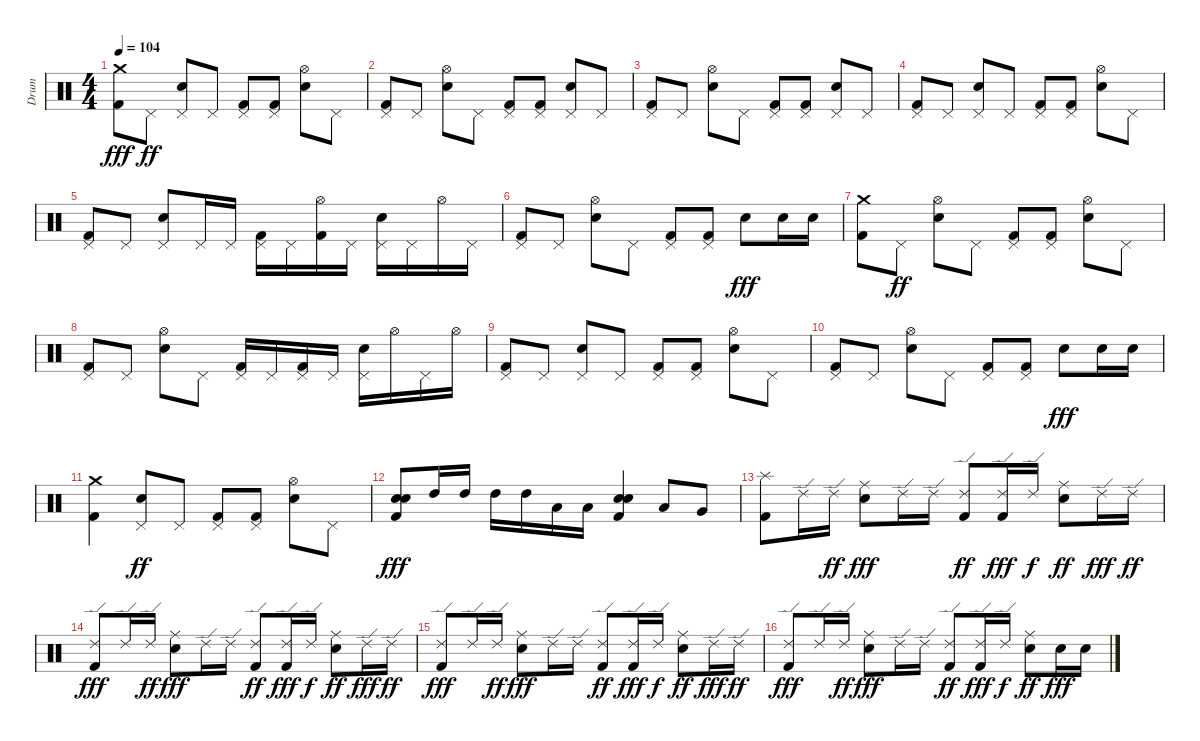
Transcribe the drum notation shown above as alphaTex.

\track ("Drum" "Drum") {instrument percussion}
\staff {score}
\articulation defaults
\ts (4 4)
\tempo 104
\clef neutral
\ks c
("Crash medium (hit)" "Kick (hit) 2").8{dy fff} "Pedal Hi-Hat (hit)".8{dy ff} ("Electric Snare (hit)" "Pedal Hi-Hat (hit)").8 "Pedal Hi-Hat (hit)".8 ("Kick (hit) 2" "Pedal Hi-Hat (hit)").8 ("Kick (hit) 2" "Pedal Hi-Hat (hit)").8 ("Electric Snare (hit)" "Hi-Hat (open)").8 "Pedal Hi-Hat (hit)".8 |
("Kick (hit) 2" "Pedal Hi-Hat (hit)").8 "Pedal Hi-Hat (hit)".8 ("Electric Snare (hit)" "Hi-Hat (open)").8 "Pedal Hi-Hat (hit)".8 ("Kick (hit) 2" "Pedal Hi-Hat (hit)").8 ("Kick (hit) 2" "Pedal Hi-Hat (hit)").8 ("Electric Snare (hit)" "Pedal Hi-Hat (hit)").8 "Pedal Hi-Hat (hit)".8 |
("Kick (hit) 2" "Pedal Hi-Hat (hit)").8 "Pedal Hi-Hat (hit)".8 ("Electric Snare (hit)" "Hi-Hat (open)").8 "Pedal Hi-Hat (hit)".8 ("Kick (hit) 2" "Pedal Hi-Hat (hit)").8 ("Kick (hit) 2" "Pedal Hi-Hat (hit)").8 ("Electric Snare (hit)" "Pedal Hi-Hat (hit)").8 "Pedal Hi-Hat (hit)".8 |
("Kick (hit) 2" "Pedal Hi-Hat (hit)").8 "Pedal Hi-Hat (hit)".8 ("Electric Snare (hit)" "Pedal Hi-Hat (hit)").8 "Pedal Hi-Hat (hit)".8 ("Kick (hit) 2" "Pedal Hi-Hat (hit)").8 ("Kick (hit) 2" "Pedal Hi-Hat (hit)").8 ("Electric Snare (hit)" "Hi-Hat (open)").8 "Pedal Hi-Hat (hit)".8 |
("Kick (hit) 2" "Pedal Hi-Hat (hit)").8 "Pedal Hi-Hat (hit)".8 ("Electric Snare (hit)" "Pedal Hi-Hat (hit)").8 "Pedal Hi-Hat (hit)".16 "Pedal Hi-Hat (hit)".16 ("Kick (hit) 2" "Pedal Hi-Hat (hit)").16 "Pedal Hi-Hat (hit)".16 ("Kick (hit) 2" "Hi-Hat (open)").16 "Pedal Hi-Hat (hit)".16 ("Electric Snare (hit)" "Pedal Hi-Hat (hit)").16 "Pedal Hi-Hat (hit)".16 "Hi-Hat (open)".16 "Pedal Hi-Hat (hit)".16 |
("Kick (hit) 2" "Pedal Hi-Hat (hit)").8 "Pedal Hi-Hat (hit)".8 ("Electric Snare (hit)" "Hi-Hat (open)").8 "Pedal Hi-Hat (hit)".8 ("Kick (hit) 2" "Pedal Hi-Hat (hit)").8 ("Kick (hit) 2" "Pedal Hi-Hat (hit)").8 "Electric Snare (hit)".8{dy fff} "Electric Snare (hit)".16 "Electric Snare (hit)".16 |
("Crash medium (hit)" "Kick (hit) 2").8 "Pedal Hi-Hat (hit)".8{dy ff} ("Electric Snare (hit)" "Hi-Hat (open)").8 "Pedal Hi-Hat (hit)".8 ("Kick (hit) 2" "Pedal Hi-Hat (hit)").8 ("Kick (hit) 2" "Pedal Hi-Hat (hit)").8 ("Electric Snare (hit)" "Hi-Hat (open)").8 "Pedal Hi-Hat (hit)".8 |
("Kick (hit) 2" "Pedal Hi-Hat (hit)").8 "Pedal Hi-Hat (hit)".8 ("Electric Snare (hit)" "Hi-Hat (open)").8 "Pedal Hi-Hat (hit)".8 ("Kick (hit) 2" "Pedal Hi-Hat (hit)").16 "Pedal Hi-Hat (hit)".16 ("Kick (hit) 2" "Pedal Hi-Hat (hit)").16 "Pedal Hi-Hat (hit)".16 ("Electric Snare (hit)" "Pedal Hi-Hat (hit)").16 "Hi-Hat (open)".16 "Pedal Hi-Hat (hit)".16 "Hi-Hat (open)".16 |
("Kick (hit) 2" "Pedal Hi-Hat (hit)").8 "Pedal Hi-Hat (hit)".8 ("Electric Snare (hit)" "Pedal Hi-Hat (hit)").8 "Pedal Hi-Hat (hit)".8 ("Kick (hit) 2" "Pedal Hi-Hat (hit)").8 ("Kick (hit) 2" "Pedal Hi-Hat (hit)").8 ("Electric Snare (hit)" "Hi-Hat (open)").8 "Pedal Hi-Hat (hit)".8 |
("Kick (hit) 2" "Pedal Hi-Hat (hit)").8 "Pedal Hi-Hat (hit)".8 ("Electric Snare (hit)" "Hi-Hat (open)").8 "Pedal Hi-Hat (hit)".8 ("Kick (hit) 2" "Pedal Hi-Hat (hit)").8 ("Kick (hit) 2" "Pedal Hi-Hat (hit)").8 "Electric Snare (hit)".8{dy fff} "Electric Snare (hit)".16 "Electric Snare (hit)".16 |
("Crash medium (hit)" "Kick (hit) 2").4 ("Electric Snare (hit)" "Pedal Hi-Hat (hit)").8{dy ff} "Pedal Hi-Hat (hit)".8 ("Kick (hit) 2" "Pedal Hi-Hat (hit)").8 ("Kick (hit) 2" "Pedal Hi-Hat (hit)").8 ("Electric Snare (hit)" "Hi-Hat (open)").8 "Pedal Hi-Hat (hit)".8 |
("Electric Snare (hit)" "Kick (hit) 2" "Electric Snare (hit)").8{dy fff} "High Tom (hit)".16 "High Tom (hit)".16 "High Tom (hit)".16 "High Tom (hit)".16 "Low Tom (hit)".16 "Low Tom (hit)".16 ("Electric Snare (hit)" "Kick (hit) 2" "Electric Snare (hit)").4 "Low Tom (hit)".8 "Very Low Tom (hit)".8 |
("Splash (hit)" "Kick (hit) 2").8 "Ride (edge) 2".16 "Ride (edge) 2".16{dy ff} ("Electric Snare (hit)" "Ride (middle)").8{dy fff} "Ride (edge) 2".16 "Ride (edge) 2".16 ("Kick (hit) 2" "Ride (edge) 2").8{dy ff} ("Kick (hit) 2" "Ride (edge) 2").16{dy fff} "Ride (edge) 2".16{dy f} ("Electric Snare (hit)" "Ride (middle)").8{dy ff} "Ride (edge) 2".16{dy fff} "Ride (edge) 2".16{dy ff} |
("Kick (hit) 2" "Ride (edge) 2").8{dy fff} "Ride (edge) 2".16 "Ride (edge) 2".16{dy ff} ("Electric Snare (hit)" "Ride (middle)").8{dy fff} "Ride (edge) 2".16 "Ride (edge) 2".16 ("Kick (hit) 2" "Ride (edge) 2").8{dy ff} ("Kick (hit) 2" "Ride (edge) 2").16{dy fff} "Ride (edge) 2".16{dy f} ("Electric Snare (hit)" "Ride (middle)").8{dy ff} "Ride (edge) 2".16{dy fff} "Ride (edge) 2".16{dy ff} |
("Kick (hit) 2" "Ride (edge) 2").8{dy fff} "Ride (edge) 2".16 "Ride (edge) 2".16{dy ff} ("Electric Snare (hit)" "Ride (middle)").8{dy fff} "Ride (edge) 2".16 "Ride (edge) 2".16 ("Kick (hit) 2" "Ride (edge) 2").8{dy ff} ("Kick (hit) 2" "Ride (edge) 2").16{dy fff} "Ride (edge) 2".16{dy f} ("Electric Snare (hit)" "Ride (middle)").8{dy ff} "Ride (edge) 2".16{dy fff} "Ride (edge) 2".16{dy ff} |
("Kick (hit) 2" "Ride (edge) 2").8{dy fff} "Ride (edge) 2".16 "Ride (edge) 2".16{dy ff} ("Electric Snare (hit)" "Ride (middle)").8{dy fff} "Ride (edge) 2".16 "Ride (edge) 2".16 ("Kick (hit) 2" "Ride (edge) 2").8{dy ff} ("Kick (hit) 2" "Ride (edge) 2").16{dy fff} "Ride (edge) 2".16{dy f} ("Electric Snare (hit)" "Ride (middle)").8{dy ff} "Electric Snare (hit)".16{dy fff} "Electric Snare (hit)".16
